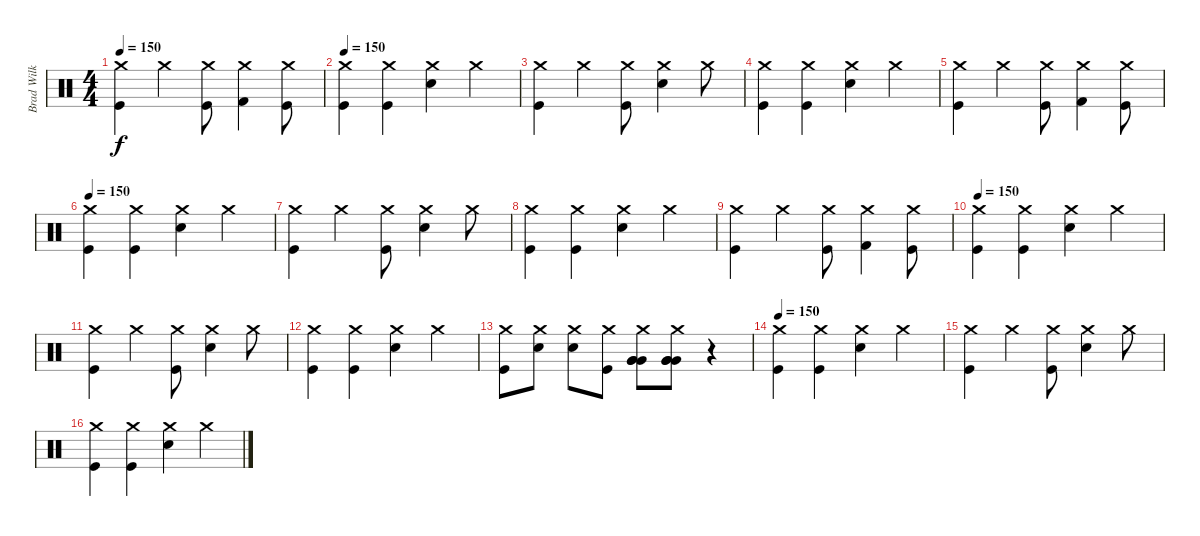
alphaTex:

\track ("Brad Wilk" "Brad Wilk") {instrument percussion}
\staff {score}
\articulation defaults
\ts (4 4)
\tempo 150
\clef neutral
\ks c
("Crash medium (hit)" "Kick (hit)").4{dy f} "Crash medium (hit)".4 ("Crash medium (hit)" "Kick (hit)").8 ("Crash medium (hit)" "Kick (hit) 2").4 ("Crash medium (hit)" "Kick (hit)").8 |
\tempo 150
("Crash medium (hit)" "Kick (hit)").4 ("Crash medium (hit)" "Kick (hit)").4 ("Crash medium (hit)" "Electric Snare (hit)").4 "Crash medium (hit)".4 |
("Crash medium (hit)" "Kick (hit)").4 "Crash medium (hit)".4 ("Crash medium (hit)" "Kick (hit)").8 ("Crash medium (hit)" "Electric Snare (hit)").4 "Crash medium (hit)".8 |
("Crash medium (hit)" "Kick (hit)").4 ("Crash medium (hit)" "Kick (hit)").4 ("Crash medium (hit)" "Electric Snare (hit)").4 "Crash medium (hit)".4 |
("Crash medium (hit)" "Kick (hit)").4 "Crash medium (hit)".4 ("Crash medium (hit)" "Kick (hit)").8 ("Crash medium (hit)" "Kick (hit) 2").4 ("Crash medium (hit)" "Kick (hit)").8 |
\tempo 150
("Crash medium (hit)" "Kick (hit)").4 ("Crash medium (hit)" "Kick (hit)").4 ("Crash medium (hit)" "Electric Snare (hit)").4 "Crash medium (hit)".4 |
("Crash medium (hit)" "Kick (hit)").4 "Crash medium (hit)".4 ("Crash medium (hit)" "Kick (hit)").8 ("Crash medium (hit)" "Electric Snare (hit)").4 "Crash medium (hit)".8 |
("Crash medium (hit)" "Kick (hit)").4 ("Crash medium (hit)" "Kick (hit)").4 ("Crash medium (hit)" "Electric Snare (hit)").4 "Crash medium (hit)".4 |
("Crash medium (hit)" "Kick (hit)").4 "Crash medium (hit)".4 ("Crash medium (hit)" "Kick (hit)").8 ("Crash medium (hit)" "Kick (hit) 2").4 ("Crash medium (hit)" "Kick (hit)").8 |
\tempo 150
("Crash medium (hit)" "Kick (hit)").4 ("Crash medium (hit)" "Kick (hit)").4 ("Crash medium (hit)" "Electric Snare (hit)").4 "Crash medium (hit)".4 |
("Crash medium (hit)" "Kick (hit)").4 "Crash medium (hit)".4 ("Crash medium (hit)" "Kick (hit)").8 ("Crash medium (hit)" "Electric Snare (hit)").4 "Crash medium (hit)".8 |
("Crash medium (hit)" "Kick (hit)").4 ("Crash medium (hit)" "Kick (hit)").4 ("Crash medium (hit)" "Electric Snare (hit)").4 "Crash medium (hit)".4 |
("Crash medium (hit)" "Kick (hit)").8 ("Crash medium (hit)" "Electric Snare (hit)").8 ("Crash medium (hit)" "Electric Snare (hit)").8 ("Crash medium (hit)" "Kick (hit)").8 ("Crash medium (hit)" "Very Low Tom (hit)" "Very Low Tom (hit)" "Very Low Tom (hit)").8 ("Crash medium (hit)" "Very Low Tom (hit)" "Very Low Tom (hit)" "Very Low Tom (hit)").8 r.4 |
\tempo 150
("Crash medium (hit)" "Kick (hit)").4 ("Crash medium (hit)" "Kick (hit)").4 ("Crash medium (hit)" "Electric Snare (hit)").4 "Crash medium (hit)".4 |
("Crash medium (hit)" "Kick (hit)").4 "Crash medium (hit)".4 ("Crash medium (hit)" "Kick (hit)").8 ("Crash medium (hit)" "Electric Snare (hit)").4 "Crash medium (hit)".8 |
("Crash medium (hit)" "Kick (hit)").4 ("Crash medium (hit)" "Kick (hit)").4 ("Crash medium (hit)" "Electric Snare (hit)").4 "Crash medium (hit)".4
